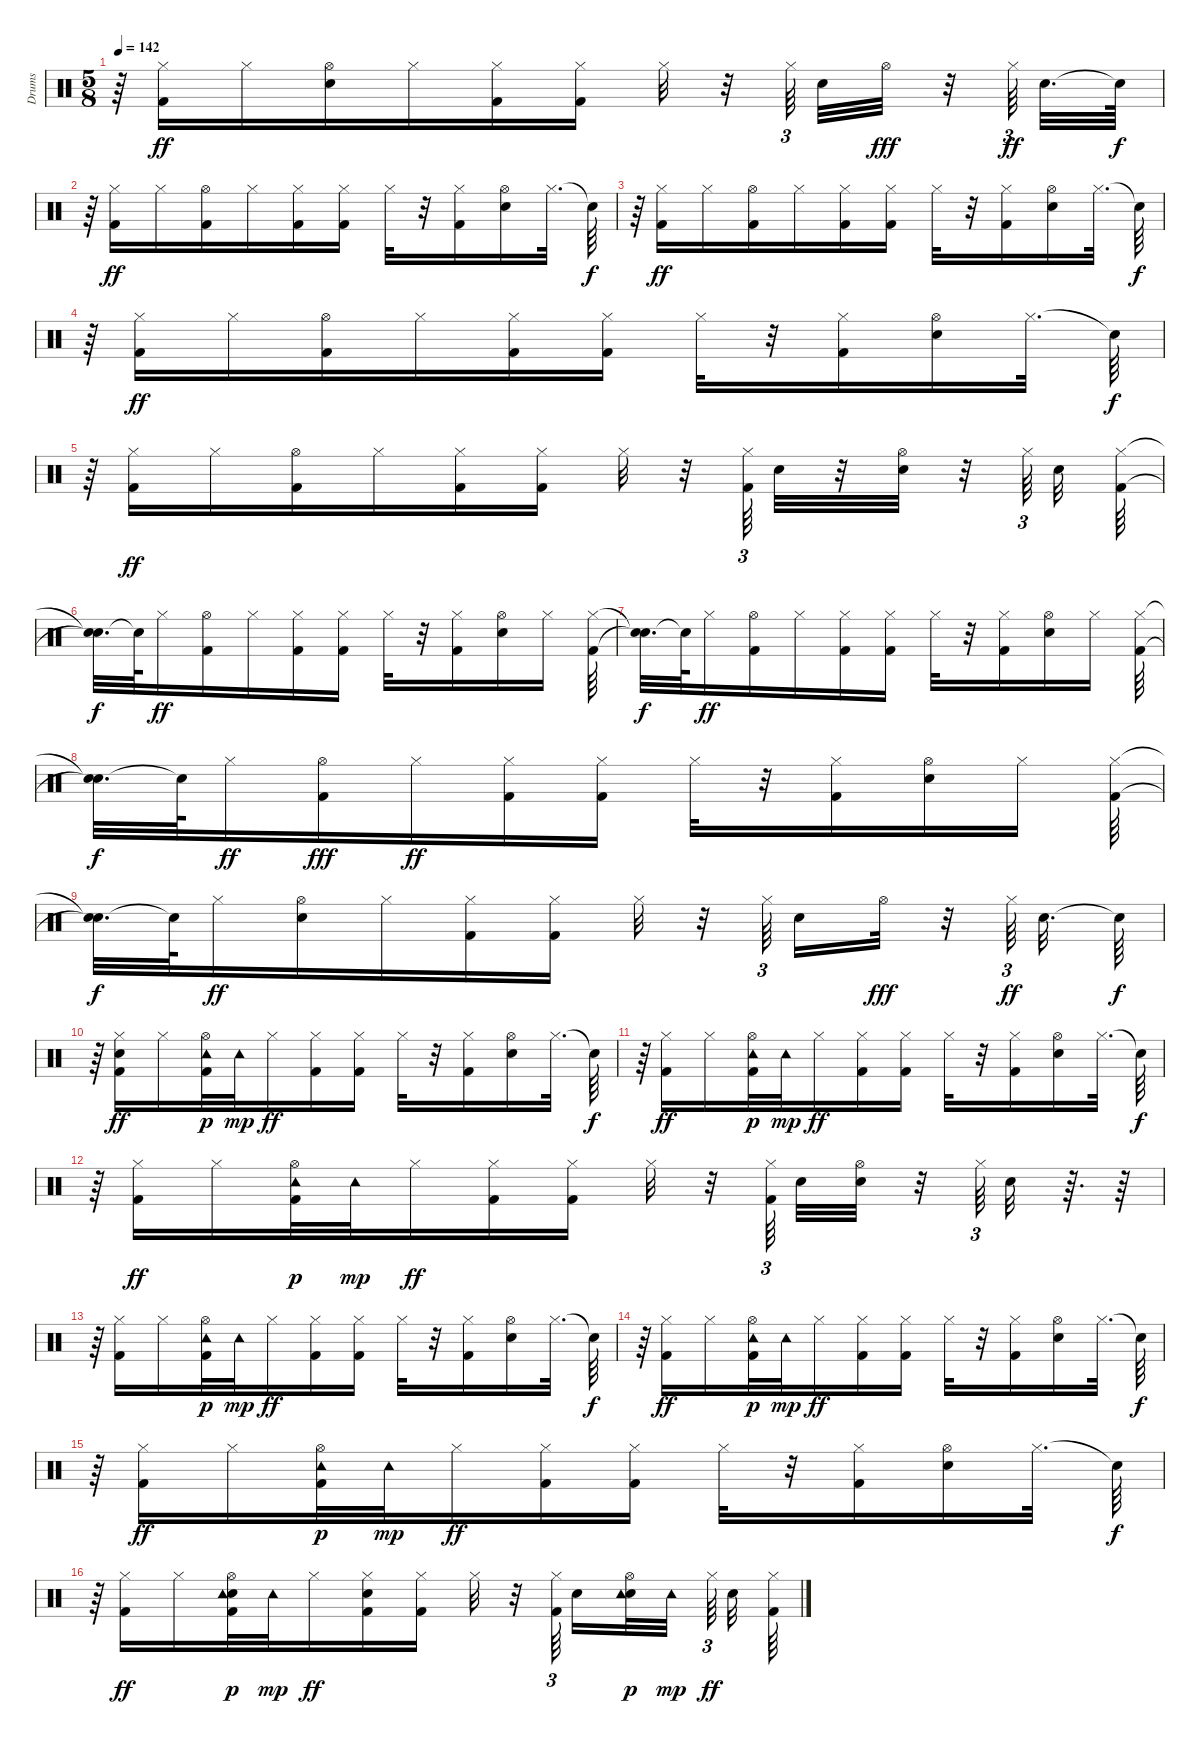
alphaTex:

\track ("Drums                               " "Drums     ") {instrument percussion}
\staff {score}
\articulation defaults
\ts (5 8)
\tempo 142
\clef neutral
\ks c
r.64{dy f} ("Hi-Hat (closed)" "Kick (hit) 2").16{dy ff} "Hi-Hat (closed)".16 ("Hi-Hat (open)" "Snare (hit) 2").16 "Hi-Hat (closed)".16 ("Kick (hit) 2" "Hi-Hat (closed)").16 ("Kick (hit) 2" "Hi-Hat (closed)").16 "Hi-Hat (closed)".32 r.32 "Hi-Hat (closed)".64{tu (3 2)} "Snare (hit) 2".32 "Hi-Hat (open)".32{dy fff} r.32 "Hi-Hat (closed)".64{tu (3 2) dy ff} "Snare (hit) 2".32{d} "Snare (hit)"{t}.64{dy f} |
r.64 ("Kick (hit) 2" "Hi-Hat (closed)").16{dy ff} "Hi-Hat (closed)".16 ("Hi-Hat (open)" "Kick (hit) 2").16 "Hi-Hat (closed)".16 ("Kick (hit) 2" "Hi-Hat (closed)").16 ("Kick (hit) 2" "Hi-Hat (closed)").16 "Hi-Hat (closed)".32 r.32 ("Kick (hit) 2" "Hi-Hat (closed)").16 ("Hi-Hat (open)" "Snare (hit) 2").16 "Hi-Hat (closed)".32{d} "Snare (hit)"{t}.64{dy f} |
r.64 ("Hi-Hat (closed)" "Kick (hit) 2").16{dy ff} "Hi-Hat (closed)".16 ("Kick (hit) 2" "Hi-Hat (open)").16 "Hi-Hat (closed)".16 ("Kick (hit) 2" "Hi-Hat (closed)").16 ("Kick (hit) 2" "Hi-Hat (closed)").16 "Hi-Hat (closed)".32 r.32 ("Kick (hit) 2" "Hi-Hat (closed)").16 ("Hi-Hat (open)" "Snare (hit) 2").16 "Hi-Hat (closed)".32{d} "Snare (hit)"{t}.64{dy f} |
r.64 ("Hi-Hat (closed)" "Kick (hit) 2").16{dy ff} "Hi-Hat (closed)".16 ("Kick (hit) 2" "Hi-Hat (open)").16 "Hi-Hat (closed)".16 ("Kick (hit) 2" "Hi-Hat (closed)").16 ("Kick (hit) 2" "Hi-Hat (closed)").16 "Hi-Hat (closed)".32 r.32 ("Kick (hit) 2" "Hi-Hat (closed)").16 ("Hi-Hat (open)" "Snare (hit) 2").16 "Hi-Hat (closed)".32{d} "Snare (hit)"{t}.64{dy f} |
r.64 ("Kick (hit) 2" "Hi-Hat (closed)").16{dy ff} "Hi-Hat (closed)".16 ("Kick (hit) 2" "Hi-Hat (open)").16 "Hi-Hat (closed)".16 ("Kick (hit) 2" "Hi-Hat (closed)").16 ("Kick (hit) 2" "Hi-Hat (closed)").16 "Hi-Hat (closed)".32 r.32 ("Kick (hit) 2" "Hi-Hat (closed)").64{tu (3 2)} "Snare (hit) 2".32 r.32 ("Snare (hit) 2" "Hi-Hat (open)").32 r.32 "Hi-Hat (closed)".64{tu (3 2)} "Snare (hit) 2".32 ("Kick (hit) 2" "Hi-Hat (closed)").64 |
("Snare (hit)"{t} "Snare (hit)"{t}).32{d dy f} "Snare (hit)"{t}.64 "Hi-Hat (closed)".16{dy ff} ("Hi-Hat (open)" "Kick (hit) 2").16 "Hi-Hat (closed)".16 ("Kick (hit) 2" "Hi-Hat (closed)").16 ("Kick (hit) 2" "Hi-Hat (closed)").16 "Hi-Hat (closed)".32 r.32 ("Kick (hit) 2" "Hi-Hat (closed)").16 ("Hi-Hat (open)" "Snare (hit) 2").16 "Hi-Hat (closed)".16 ("Hi-Hat (closed)" "Kick (hit) 2").64 |
("Snare (hit)"{t} "Snare (hit)"{t}).32{d dy f} "Snare (hit)"{t}.64 "Hi-Hat (closed)".16{dy ff} ("Hi-Hat (open)" "Kick (hit) 2").16 "Hi-Hat (closed)".16 ("Kick (hit) 2" "Hi-Hat (closed)").16 ("Kick (hit) 2" "Hi-Hat (closed)").16 "Hi-Hat (closed)".32 r.32 ("Kick (hit) 2" "Hi-Hat (closed)").16 ("Snare (hit) 2" "Hi-Hat (open)").16 "Hi-Hat (closed)".16 ("Kick (hit) 2" "Hi-Hat (closed)").64 |
("Snare (hit)"{t} "Snare (hit)"{t}).32{d dy f} "Snare (hit)"{t}.64 "Hi-Hat (closed)".16{dy ff} ("Kick (hit) 2" "Hi-Hat (open)").16{dy fff} "Hi-Hat (closed)".16{dy ff} ("Kick (hit) 2" "Hi-Hat (closed)").16 ("Kick (hit) 2" "Hi-Hat (closed)").16 "Hi-Hat (closed)".32 r.32 ("Kick (hit) 2" "Hi-Hat (closed)").16 ("Hi-Hat (open)" "Snare (hit) 2").16 "Hi-Hat (closed)".16 ("Kick (hit) 2" "Hi-Hat (closed)").64 |
("Snare (hit)"{t} "Snare (hit)"{t}).32{d dy f} "Snare (hit)"{t}.64 "Hi-Hat (closed)".16{dy ff} ("Hi-Hat (open)" "Snare (hit) 2").16 "Hi-Hat (closed)".16 ("Hi-Hat (closed)" "Kick (hit) 2").16 ("Kick (hit) 2" "Hi-Hat (closed)").16 "Hi-Hat (closed)".32 r.32 "Hi-Hat (closed)".64{tu (3 2)} "Snare (hit) 2".16 "Hi-Hat (open)".32{dy fff} r.32 "Hi-Hat (closed)".64{tu (3 2) dy ff} "Snare (hit) 2".32{d} "Snare (hit)"{t}.64{dy f} |
r.64 ("Kick (hit) 2" "Hi-Hat (closed)" "Snare (hit) 2").16{dy ff} "Hi-Hat (closed)".16 ("Hi-Hat (open)" "Kick (hit) 2" "Tambourine (hit)").32{dy p} "Tambourine (hit)".32{dy mp} "Hi-Hat (closed)".16{dy ff} ("Kick (hit) 2" "Hi-Hat (closed)").16 ("Kick (hit) 2" "Hi-Hat (closed)").16 "Hi-Hat (closed)".32 r.32 ("Kick (hit) 2" "Hi-Hat (closed)").16 ("Snare (hit) 2" "Hi-Hat (open)").16 "Hi-Hat (closed)".32{d} "Snare (hit)"{t}.64{dy f} |
r.64 ("Hi-Hat (closed)" "Kick (hit) 2").16{dy ff} "Hi-Hat (closed)".16 ("Hi-Hat (open)" "Kick (hit) 2" "Tambourine (hit)").32{dy p} "Tambourine (hit)".32{dy mp} "Hi-Hat (closed)".16{dy ff} ("Kick (hit) 2" "Hi-Hat (closed)").16 ("Kick (hit) 2" "Hi-Hat (closed)").16 "Hi-Hat (closed)".32 r.32 ("Kick (hit) 2" "Hi-Hat (closed)").16 ("Hi-Hat (open)" "Snare (hit) 2").16 "Hi-Hat (closed)".32{d} "Snare (hit)"{t}.64{dy f} |
r.64 ("Hi-Hat (closed)" "Kick (hit) 2").16{dy ff} "Hi-Hat (closed)".16 ("Hi-Hat (open)" "Kick (hit) 2" "Tambourine (hit)").32{dy p} "Tambourine (hit)".32{dy mp} "Hi-Hat (closed)".16{dy ff} ("Hi-Hat (closed)" "Kick (hit) 2").16 ("Kick (hit) 2" "Hi-Hat (closed)").16 "Hi-Hat (closed)".32 r.32 ("Kick (hit) 2" "Hi-Hat (closed)").64{tu (3 2)} "Snare (hit) 2".32 ("Hi-Hat (open)" "Snare (hit) 2").32 r.32 "Hi-Hat (closed)".64{tu (3 2)} "Snare (hit) 2".32 r.64{d} r.64 |
r.64 ("Hi-Hat (closed)" "Kick (hit) 2").16 "Hi-Hat (closed)".16 ("Hi-Hat (open)" "Kick (hit) 2" "Tambourine (hit)").32{dy p} "Tambourine (hit)".32{dy mp} "Hi-Hat (closed)".16{dy ff} ("Kick (hit) 2" "Hi-Hat (closed)").16 ("Kick (hit) 2" "Hi-Hat (closed)").16 "Hi-Hat (closed)".32 r.32 ("Kick (hit) 2" "Hi-Hat (closed)").16 ("Hi-Hat (open)" "Snare (hit) 2").16 "Hi-Hat (closed)".32{d} "Snare (hit)"{t}.64{dy f} |
r.64 ("Kick (hit) 2" "Hi-Hat (closed)").16{dy ff} "Hi-Hat (closed)".16 ("Kick (hit) 2" "Hi-Hat (open)" "Tambourine (hit)").32{dy p} "Tambourine (hit)".32{dy mp} "Hi-Hat (closed)".16{dy ff} ("Hi-Hat (closed)" "Kick (hit) 2").16 ("Kick (hit) 2" "Hi-Hat (closed)").16 "Hi-Hat (closed)".32 r.32 ("Kick (hit) 2" "Hi-Hat (closed)").16 ("Hi-Hat (open)" "Snare (hit) 2").16 "Hi-Hat (closed)".32{d} "Snare (hit)"{t}.64{dy f} |
r.64 ("Hi-Hat (closed)" "Kick (hit) 2").16{dy ff} "Hi-Hat (closed)".16 ("Kick (hit) 2" "Hi-Hat (open)" "Tambourine (hit)").32{dy p} "Tambourine (hit)".32{dy mp} "Hi-Hat (closed)".16{dy ff} ("Hi-Hat (closed)" "Kick (hit) 2").16 ("Kick (hit) 2" "Hi-Hat (closed)").16 "Hi-Hat (closed)".32 r.32 ("Kick (hit) 2" "Hi-Hat (closed)").16 ("Snare (hit) 2" "Hi-Hat (open)").16 "Hi-Hat (closed)".32{d} "Snare (hit)"{t}.64{dy f} |
r.64 ("Kick (hit) 2" "Hi-Hat (closed)").16{dy ff} "Hi-Hat (closed)".16 ("Hi-Hat (open)" "Snare (hit) 2" "Kick (hit) 2" "Tambourine (hit)").32{dy p} "Tambourine (hit)".32{dy mp} "Hi-Hat (closed)".16{dy ff} ("Hi-Hat (closed)" "Kick (hit) 2" "Snare (hit) 2").16 ("Kick (hit) 2" "Hi-Hat (closed)").16 "Hi-Hat (closed)".32 r.32 ("Kick (hit) 2" "Hi-Hat (closed)").64{tu (3 2)} "Snare (hit) 2".16 ("Snare (hit) 2" "Hi-Hat (open)" "Tambourine (hit)").32{dy p} "Tambourine (hit)".32{dy mp} "Hi-Hat (closed)".64{tu (3 2) dy ff} "Snare (hit) 2".32 ("Hi-Hat (closed)" "Kick (hit) 2").64
